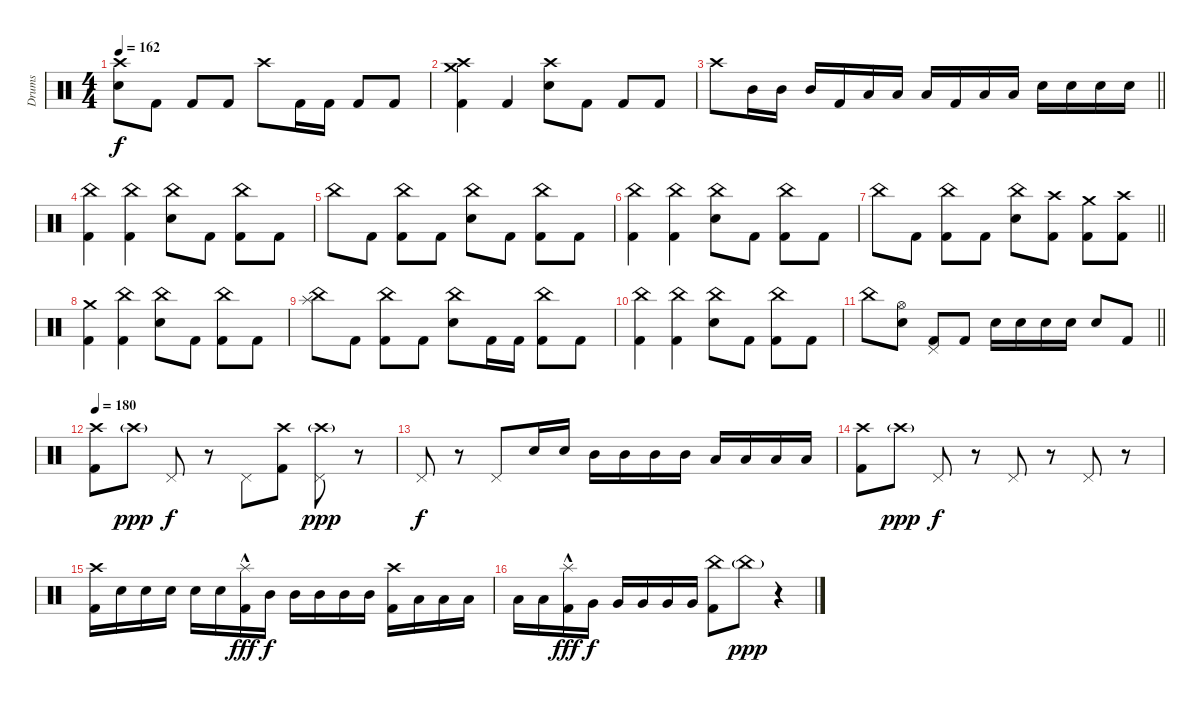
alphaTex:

\track ("Drums" "Drums") {instrument percussion}
\staff {score}
\articulation defaults
\ts (4 4)
\tempo 162
\clef neutral
\ks c
("Crash high (hit)" "Electric Snare (hit)").8{dy f} "Kick (hit) 2".8 "Kick (hit) 2".8 "Kick (hit) 2".8 "Crash high (hit)".8 "Kick (hit) 2".16 "Kick (hit) 2".16 "Kick (hit) 2".8 "Kick (hit) 2".8 |
("Crash high (hit)" "Crash medium (hit)" "Kick (hit) 2").4 "Kick (hit) 2".4 ("Crash high (hit)" "Electric Snare (hit)").8 "Kick (hit) 2".8 "Kick (hit) 2".8 "Kick (hit) 2".8 |
\barLineRight lightlight "Crash high (hit)".8 "Mid Tom (hit)".16 "Mid Tom (hit)".16 "Mid Tom (hit)".16 "Kick (hit) 2".16 "Low Tom (hit)".16 "Low Tom (hit)".16 "Low Tom (hit)".16 "Kick (hit) 2".16 "Low Tom (hit)".16 "Low Tom (hit)".16 "Electric Snare (hit)".16 "Electric Snare (hit)".16 "Electric Snare (hit)".16 "Electric Snare (hit)".16
|
\section ("" "")
("China (hit)" "Kick (hit) 2").4 ("China (hit)" "Kick (hit) 2").4 ("China (hit)" "Electric Snare (hit)").8 "Kick (hit) 2".8 ("China (hit)" "Kick (hit) 2").8 "Kick (hit) 2".8 |
"China (hit)".8 "Kick (hit) 2".8 ("China (hit)" "Kick (hit) 2").8 "Kick (hit) 2".8 ("China (hit)" "Electric Snare (hit)").8 "Kick (hit) 2".8 ("China (hit)" "Kick (hit) 2").8 "Kick (hit) 2".8 |
("China (hit)" "Kick (hit) 2").4 ("China (hit)" "Kick (hit) 2").4 ("China (hit)" "Electric Snare (hit)").8 "Kick (hit) 2".8 ("China (hit)" "Kick (hit) 2").8 "Kick (hit) 2".8 |
\barLineRight lightlight "China (hit)".8 "Kick (hit) 2".8
("China (hit)" "Kick (hit) 2").8 "Kick (hit) 2".8 ("China (hit)" "Electric Snare (hit)").8 ("Crash high (hit)" "Kick (hit) 2").8 ("Crash medium (hit)" "Kick (hit) 2").8 ("Crash high (hit)" "Kick (hit) 2").8 |
("Crash medium (hit)" "Kick (hit) 2").4 ("China (hit)" "Kick (hit) 2").4 ("China (hit)" "Electric Snare (hit)").8 "Kick (hit) 2".8 ("China (hit)" "Kick (hit) 2").8 "Kick (hit) 2".8 |
("China (hit)" "Splash (hit)").8 "Kick (hit) 2".8 ("China (hit)" "Kick (hit) 2").8 "Kick (hit) 2".8 ("China (hit)" "Electric Snare (hit)").8 "Kick (hit) 2".16 "Kick (hit) 2".16 ("China (hit)" "Kick (hit) 2").8 "Kick (hit) 2".8 |
("China (hit)" "Kick (hit) 2").4 ("China (hit)" "Kick (hit) 2").4 ("China (hit)" "Electric Snare (hit)").8 "Kick (hit) 2".8 ("China (hit)" "Kick (hit) 2").8 "Kick (hit) 2".8 |
\barLineRight lightlight "China (hit)".8
("Hi-Hat (open)" "Electric Snare (hit)").8 ("Pedal Hi-Hat (hit)" "Kick (hit) 2").8 "Kick (hit) 2".8 "Electric Snare (hit)".16 "Electric Snare (hit)".16 "Electric Snare (hit)".16 "Electric Snare (hit)".16 "Electric Snare (hit)".8 "Kick (hit) 2".8 |
\section ("" "")
\tempo 180
("Crash high (hit)" "Kick (hit) 2").8 "Crash high (hit)"{g}.8{dy ppp} "Pedal Hi-Hat (hit)".8{dy f} r.8 "Pedal Hi-Hat (hit)".8 ("Crash high (hit)" "Kick (hit) 2").8 ("Crash high (hit)"{g} "Pedal Hi-Hat (hit)").8{dy ppp} r.8 |
"Pedal Hi-Hat (hit)".8{dy f} r.8 "Pedal Hi-Hat (hit)".8 "Electric Snare (hit)".16 "Electric Snare (hit)".16 "Mid Tom (hit)".16 "Mid Tom (hit)".16 "Mid Tom (hit)".16 "Mid Tom (hit)".16 "Low Tom (hit)".16 "Low Tom (hit)".16 "Low Tom (hit)".16 "Low Tom (hit)".16 |
("Crash high (hit)" "Kick (hit) 2").8 "Crash high (hit)"{g}.8{dy ppp} "Pedal Hi-Hat (hit)".8{dy f} r.8 "Pedal Hi-Hat (hit)".8 r.8 "Pedal Hi-Hat (hit)".8 r.8 |
("Crash high (hit)" "Kick (hit) 2").16 "Electric Snare (hit)".16 "Electric Snare (hit)".16 "Electric Snare (hit)".16 "Electric Snare (hit)".16 "Electric Snare (hit)".16 ("Splash (hit)"{hac} "Kick (hit) 2").16{dy fff} "Mid Tom (hit)".16{dy f} "Mid Tom (hit)".16 "Mid Tom (hit)".16 "Mid Tom (hit)".16 "Mid Tom (hit)".16 ("Crash high (hit)" "Kick (hit) 2").16 "Low Tom (hit)".16 "Low Tom (hit)".16 "Low Tom (hit)".16 |
"Low Tom (hit)".16 "Low Tom (hit)".16 ("Splash (hit)"{hac} "Kick (hit) 2").16{dy fff} "Very Low Tom (hit)".16{dy f} "Very Low Tom (hit)".16 "Very Low Tom (hit)".16 "Very Low Tom (hit)".16 "Very Low Tom (hit)".16 ("China (hit)" "Kick (hit) 2").8 "China (hit)"{g}.8{dy ppp} r.4
